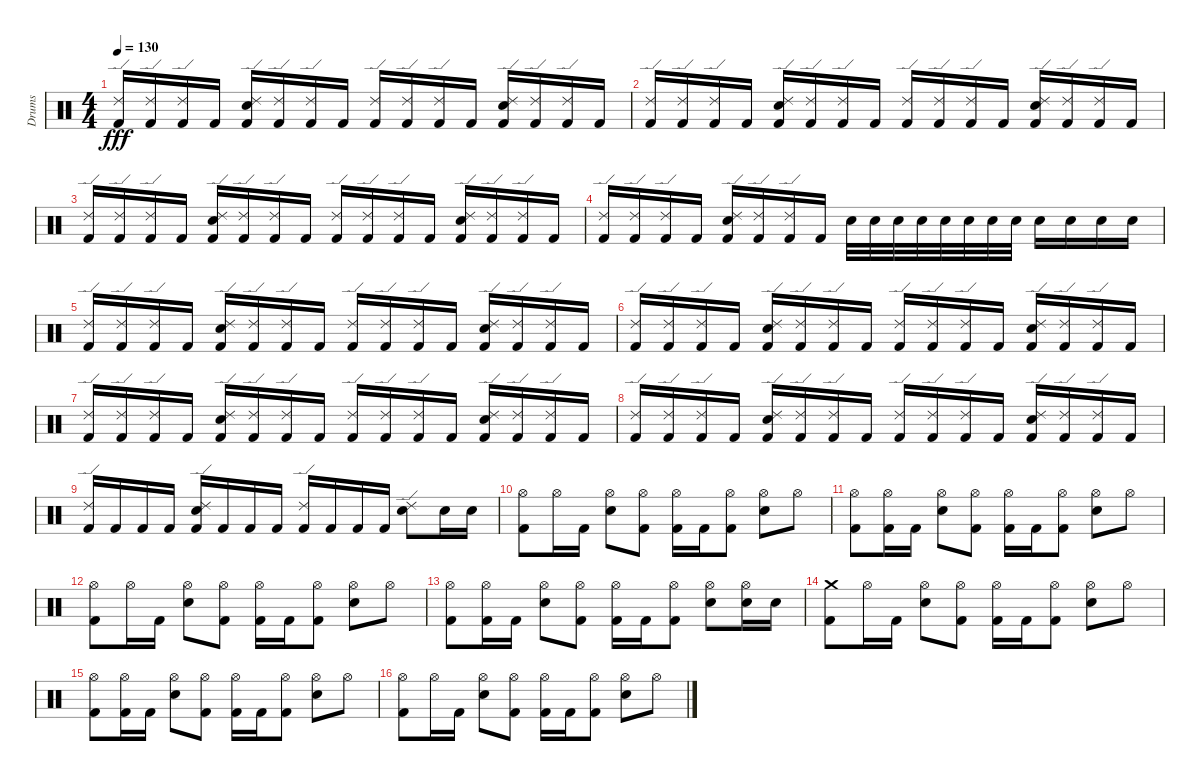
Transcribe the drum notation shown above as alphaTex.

\track ("Drums" "Drums") {instrument percussion}
\staff {score}
\articulation defaults
\ts (4 4)
\tempo 130
\clef neutral
\ks c
("Ride (edge) 2" "Kick (hit) 2").16{dy fff} ("Ride (edge) 2" "Kick (hit) 2").16 ("Ride (edge) 2" "Kick (hit) 2").16 "Kick (hit) 2".16 ("Ride (edge) 2" "Kick (hit) 2" "Electric Snare (hit)").16 ("Ride (edge) 2" "Kick (hit) 2").16 ("Ride (edge) 2" "Kick (hit) 2").16 "Kick (hit) 2".16 ("Ride (edge) 2" "Kick (hit) 2").16 ("Ride (edge) 2" "Kick (hit) 2").16 ("Ride (edge) 2" "Kick (hit) 2").16 "Kick (hit) 2".16 ("Electric Snare (hit)" "Ride (edge) 2" "Kick (hit) 2").16 ("Ride (edge) 2" "Kick (hit) 2").16 ("Ride (edge) 2" "Kick (hit) 2").16 "Kick (hit) 2".16 |
("Ride (edge) 2" "Kick (hit) 2").16 ("Ride (edge) 2" "Kick (hit) 2").16 ("Ride (edge) 2" "Kick (hit) 2").16 "Kick (hit) 2".16 ("Electric Snare (hit)" "Ride (edge) 2" "Kick (hit) 2").16 ("Ride (edge) 2" "Kick (hit) 2").16 ("Ride (edge) 2" "Kick (hit) 2").16 "Kick (hit) 2".16 ("Ride (edge) 2" "Kick (hit) 2").16 ("Ride (edge) 2" "Kick (hit) 2").16 ("Ride (edge) 2" "Kick (hit) 2").16 "Kick (hit) 2".16 ("Electric Snare (hit)" "Ride (edge) 2" "Kick (hit) 2").16 ("Ride (edge) 2" "Kick (hit) 2").16 ("Ride (edge) 2" "Kick (hit) 2").16 "Kick (hit) 2".16 |
("Ride (edge) 2" "Kick (hit) 2").16 ("Ride (edge) 2" "Kick (hit) 2").16 ("Ride (edge) 2" "Kick (hit) 2").16 "Kick (hit) 2".16 ("Ride (edge) 2" "Kick (hit) 2" "Electric Snare (hit)").16 ("Ride (edge) 2" "Kick (hit) 2").16 ("Ride (edge) 2" "Kick (hit) 2").16 "Kick (hit) 2".16 ("Ride (edge) 2" "Kick (hit) 2").16 ("Ride (edge) 2" "Kick (hit) 2").16 ("Ride (edge) 2" "Kick (hit) 2").16 "Kick (hit) 2".16 ("Electric Snare (hit)" "Ride (edge) 2" "Kick (hit) 2").16 ("Ride (edge) 2" "Kick (hit) 2").16 ("Ride (edge) 2" "Kick (hit) 2").16 "Kick (hit) 2".16 |
("Ride (edge) 2" "Kick (hit) 2").16 ("Ride (edge) 2" "Kick (hit) 2").16 ("Ride (edge) 2" "Kick (hit) 2").16 "Kick (hit) 2".16 ("Electric Snare (hit)" "Ride (edge) 2" "Kick (hit) 2").16 ("Ride (edge) 2" "Kick (hit) 2").16 ("Ride (edge) 2" "Kick (hit) 2").16 "Kick (hit) 2".16 "Electric Snare (hit)".32 "Electric Snare (hit)".32 "Electric Snare (hit)".32 "Electric Snare (hit)".32 "Electric Snare (hit)".32 "Electric Snare (hit)".32 "Electric Snare (hit)".32 "Electric Snare (hit)".32 "Electric Snare (hit)".16 "Electric Snare (hit)".16 "Electric Snare (hit)".16 "Electric Snare (hit)".16 |
("Ride (edge) 2" "Kick (hit) 2").16 ("Ride (edge) 2" "Kick (hit) 2").16 ("Ride (edge) 2" "Kick (hit) 2").16 "Kick (hit) 2".16 ("Ride (edge) 2" "Kick (hit) 2" "Electric Snare (hit)").16 ("Ride (edge) 2" "Kick (hit) 2").16 ("Ride (edge) 2" "Kick (hit) 2").16 "Kick (hit) 2".16 ("Ride (edge) 2" "Kick (hit) 2").16 ("Ride (edge) 2" "Kick (hit) 2").16 ("Ride (edge) 2" "Kick (hit) 2").16 "Kick (hit) 2".16 ("Electric Snare (hit)" "Ride (edge) 2" "Kick (hit) 2").16 ("Ride (edge) 2" "Kick (hit) 2").16 ("Ride (edge) 2" "Kick (hit) 2").16 "Kick (hit) 2".16 |
("Ride (edge) 2" "Kick (hit) 2").16 ("Ride (edge) 2" "Kick (hit) 2").16 ("Ride (edge) 2" "Kick (hit) 2").16 "Kick (hit) 2".16 ("Electric Snare (hit)" "Ride (edge) 2" "Kick (hit) 2").16 ("Ride (edge) 2" "Kick (hit) 2").16 ("Ride (edge) 2" "Kick (hit) 2").16 "Kick (hit) 2".16 ("Ride (edge) 2" "Kick (hit) 2").16 ("Ride (edge) 2" "Kick (hit) 2").16 ("Ride (edge) 2" "Kick (hit) 2").16 "Kick (hit) 2".16 ("Electric Snare (hit)" "Ride (edge) 2" "Kick (hit) 2").16 ("Ride (edge) 2" "Kick (hit) 2").16 ("Ride (edge) 2" "Kick (hit) 2").16 "Kick (hit) 2".16 |
("Ride (edge) 2" "Kick (hit) 2").16 ("Ride (edge) 2" "Kick (hit) 2").16 ("Ride (edge) 2" "Kick (hit) 2").16 "Kick (hit) 2".16 ("Ride (edge) 2" "Kick (hit) 2" "Electric Snare (hit)").16 ("Ride (edge) 2" "Kick (hit) 2").16 ("Ride (edge) 2" "Kick (hit) 2").16 "Kick (hit) 2".16 ("Ride (edge) 2" "Kick (hit) 2").16 ("Ride (edge) 2" "Kick (hit) 2").16 ("Ride (edge) 2" "Kick (hit) 2").16 "Kick (hit) 2".16 ("Electric Snare (hit)" "Ride (edge) 2" "Kick (hit) 2").16 ("Ride (edge) 2" "Kick (hit) 2").16 ("Ride (edge) 2" "Kick (hit) 2").16 "Kick (hit) 2".16 |
("Ride (edge) 2" "Kick (hit) 2").16 ("Ride (edge) 2" "Kick (hit) 2").16 ("Ride (edge) 2" "Kick (hit) 2").16 "Kick (hit) 2".16 ("Electric Snare (hit)" "Ride (edge) 2" "Kick (hit) 2").16 ("Ride (edge) 2" "Kick (hit) 2").16 ("Ride (edge) 2" "Kick (hit) 2").16 "Kick (hit) 2".16 ("Ride (edge) 2" "Kick (hit) 2").16 ("Ride (edge) 2" "Kick (hit) 2").16 ("Ride (edge) 2" "Kick (hit) 2").16 "Kick (hit) 2".16 ("Electric Snare (hit)" "Ride (edge) 2" "Kick (hit) 2").16 ("Ride (edge) 2" "Kick (hit) 2").16 ("Ride (edge) 2" "Kick (hit) 2").16 "Kick (hit) 2".16 |
("Ride (edge) 2" "Kick (hit) 2").16 "Kick (hit) 2".16 "Kick (hit) 2".16 "Kick (hit) 2".16 ("Electric Snare (hit)" "Ride (edge) 2" "Kick (hit) 2").16 "Kick (hit) 2".16 "Kick (hit) 2".16 "Kick (hit) 2".16 ("Ride (edge) 2" "Kick (hit) 2").16 "Kick (hit) 2".16 "Kick (hit) 2".16 "Kick (hit) 2".16 ("Ride (edge) 2" "Electric Snare (hit)").8 "Electric Snare (hit)".16 "Electric Snare (hit)".16 |
("Kick (hit) 2" "Hi-Hat (open)").8 "Hi-Hat (open)".16 "Kick (hit) 2".16 ("Electric Snare (hit)" "Hi-Hat (open)").8 ("Kick (hit) 2" "Hi-Hat (open)").8 ("Kick (hit) 2" "Hi-Hat (open)").16 "Kick (hit) 2".16 ("Kick (hit) 2" "Hi-Hat (open)").8 ("Electric Snare (hit)" "Hi-Hat (open)").8 "Hi-Hat (open)".8 |
("Hi-Hat (open)" "Kick (hit) 2").8 ("Hi-Hat (open)" "Kick (hit) 2").16 "Kick (hit) 2".16 ("Hi-Hat (open)" "Electric Snare (hit)").8 ("Hi-Hat (open)" "Kick (hit) 2").8 ("Hi-Hat (open)" "Kick (hit) 2").16 "Kick (hit) 2".16 ("Hi-Hat (open)" "Kick (hit) 2").8 ("Hi-Hat (open)" "Electric Snare (hit)").8 "Hi-Hat (open)".8 |
("Kick (hit) 2" "Hi-Hat (open)").8 "Hi-Hat (open)".16 "Kick (hit) 2".16 ("Electric Snare (hit)" "Hi-Hat (open)").8 ("Kick (hit) 2" "Hi-Hat (open)").8 ("Kick (hit) 2" "Hi-Hat (open)").16 "Kick (hit) 2".16 ("Kick (hit) 2" "Hi-Hat (open)").8 ("Electric Snare (hit)" "Hi-Hat (open)").8 "Hi-Hat (open)".8 |
("Hi-Hat (open)" "Kick (hit) 2").8 ("Hi-Hat (open)" "Kick (hit) 2").16 "Kick (hit) 2".16 ("Hi-Hat (open)" "Electric Snare (hit)").8 ("Hi-Hat (open)" "Kick (hit) 2").8 ("Hi-Hat (open)" "Kick (hit) 2").16 "Kick (hit) 2".16 ("Hi-Hat (open)" "Kick (hit) 2").8 ("Hi-Hat (open)" "Electric Snare (hit)").8 ("Electric Snare (hit)" "Hi-Hat (open)").16 "Electric Snare (hit)".16 |
("Kick (hit) 2" "Crash medium (hit)").8 "Hi-Hat (open)".16 "Kick (hit) 2".16 ("Electric Snare (hit)" "Hi-Hat (open)").8 ("Kick (hit) 2" "Hi-Hat (open)").8 ("Kick (hit) 2" "Hi-Hat (open)").16 "Kick (hit) 2".16 ("Kick (hit) 2" "Hi-Hat (open)").8 ("Electric Snare (hit)" "Hi-Hat (open)").8 "Hi-Hat (open)".8 |
("Hi-Hat (open)" "Kick (hit) 2").8 ("Hi-Hat (open)" "Kick (hit) 2").16 "Kick (hit) 2".16 ("Hi-Hat (open)" "Electric Snare (hit)").8 ("Hi-Hat (open)" "Kick (hit) 2").8 ("Hi-Hat (open)" "Kick (hit) 2").16 "Kick (hit) 2".16 ("Hi-Hat (open)" "Kick (hit) 2").8 ("Hi-Hat (open)" "Electric Snare (hit)").8 "Hi-Hat (open)".8 |
("Kick (hit) 2" "Hi-Hat (open)").8 "Hi-Hat (open)".16 "Kick (hit) 2".16 ("Electric Snare (hit)" "Hi-Hat (open)").8 ("Kick (hit) 2" "Hi-Hat (open)").8 ("Kick (hit) 2" "Hi-Hat (open)").16 "Kick (hit) 2".16 ("Kick (hit) 2" "Hi-Hat (open)").8 ("Electric Snare (hit)" "Hi-Hat (open)").8 "Hi-Hat (open)".8
